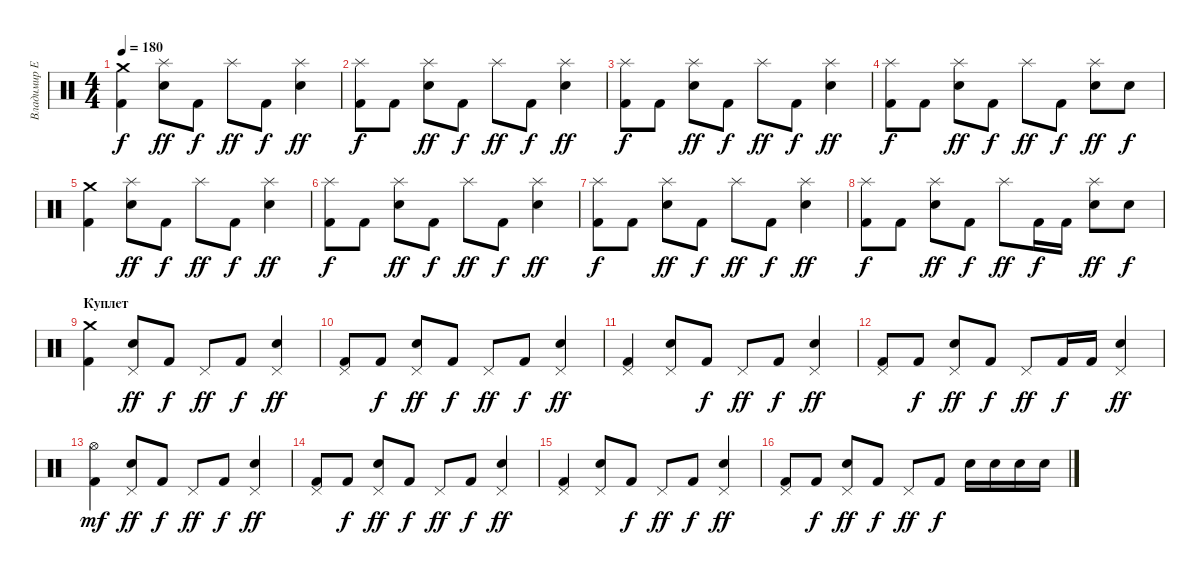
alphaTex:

\track ("Владимир Ермаков" "Владимир Е") {instrument percussion}
\staff {score}
\articulation defaults
\ts (4 4)
\tempo 180
\clef neutral
\ks c
("Crash medium (hit)" "Kick (hit) 2").4{dy f} ("Splash (hit)" "Electric Snare (hit)").8{dy ff} "Kick (hit) 2".8{dy f} "Splash (hit)".8{dy ff} "Kick (hit) 2".8{dy f} ("Splash (hit)" "Electric Snare (hit)").4{dy ff} |
("Splash (hit)" "Kick (hit) 2").8{dy f} "Kick (hit) 2".8 ("Splash (hit)" "Electric Snare (hit)").8{dy ff} "Kick (hit) 2".8{dy f} "Splash (hit)".8{dy ff} "Kick (hit) 2".8{dy f} ("Splash (hit)" "Electric Snare (hit)").4{dy ff} |
("Splash (hit)" "Kick (hit) 2").8{dy f} "Kick (hit) 2".8 ("Splash (hit)" "Electric Snare (hit)").8{dy ff} "Kick (hit) 2".8{dy f} "Splash (hit)".8{dy ff} "Kick (hit) 2".8{dy f} ("Splash (hit)" "Electric Snare (hit)").4{dy ff} |
("Splash (hit)" "Kick (hit) 2").8{dy f} "Kick (hit) 2".8 ("Splash (hit)" "Electric Snare (hit)").8{dy ff} "Kick (hit) 2".8{dy f} "Splash (hit)".8{dy ff} "Kick (hit) 2".8{dy f} ("Splash (hit)" "Electric Snare (hit)").8{dy ff} "Electric Snare (hit)".8{dy f} |
("Crash medium (hit)" "Kick (hit) 2").4 ("Splash (hit)" "Electric Snare (hit)").8{dy ff} "Kick (hit) 2".8{dy f} "Splash (hit)".8{dy ff} "Kick (hit) 2".8{dy f} ("Splash (hit)" "Electric Snare (hit)").4{dy ff} |
("Splash (hit)" "Kick (hit) 2").8{dy f} "Kick (hit) 2".8 ("Splash (hit)" "Electric Snare (hit)").8{dy ff} "Kick (hit) 2".8{dy f} "Splash (hit)".8{dy ff} "Kick (hit) 2".8{dy f} ("Splash (hit)" "Electric Snare (hit)").4{dy ff} |
("Splash (hit)" "Kick (hit) 2").8{dy f} "Kick (hit) 2".8 ("Splash (hit)" "Electric Snare (hit)").8{dy ff} "Kick (hit) 2".8{dy f} "Splash (hit)".8{dy ff} "Kick (hit) 2".8{dy f} ("Splash (hit)" "Electric Snare (hit)").4{dy ff} |
("Splash (hit)" "Kick (hit) 2").8{dy f} "Kick (hit) 2".8 ("Splash (hit)" "Electric Snare (hit)").8{dy ff} "Kick (hit) 2".8{dy f} "Splash (hit)".8{dy ff} "Kick (hit) 2".16{dy f} "Kick (hit) 2".16 ("Splash (hit)" "Electric Snare (hit)").8{dy ff} "Electric Snare (hit)".8{dy f} |
\section ("" "Куплет")
("Crash medium (hit)" "Kick (hit) 2").4 ("Pedal Hi-Hat (hit)" "Electric Snare (hit)").8{dy ff} "Kick (hit) 2".8{dy f} "Pedal Hi-Hat (hit)".8{dy ff} "Kick (hit) 2".8{dy f} ("Pedal Hi-Hat (hit)" "Electric Snare (hit)").4{dy ff} |
("Pedal Hi-Hat (hit)" "Kick (hit) 2").8 "Kick (hit) 2".8{dy f} ("Pedal Hi-Hat (hit)" "Electric Snare (hit)").8{dy ff} "Kick (hit) 2".8{dy f} "Pedal Hi-Hat (hit)".8{dy ff} "Kick (hit) 2".8{dy f} ("Pedal Hi-Hat (hit)" "Electric Snare (hit)").4{dy ff} |
("Pedal Hi-Hat (hit)" "Kick (hit) 2").4 ("Pedal Hi-Hat (hit)" "Electric Snare (hit)").8 "Kick (hit) 2".8{dy f} "Pedal Hi-Hat (hit)".8{dy ff} "Kick (hit) 2".8{dy f} ("Pedal Hi-Hat (hit)" "Electric Snare (hit)").4{dy ff} |
("Pedal Hi-Hat (hit)" "Kick (hit) 2").8 "Kick (hit) 2".8{dy f} ("Pedal Hi-Hat (hit)" "Electric Snare (hit)").8{dy ff} "Kick (hit) 2".8{dy f} "Pedal Hi-Hat (hit)".8{dy ff} "Kick (hit) 2".16{dy f} "Kick (hit) 2".16 ("Pedal Hi-Hat (hit)" "Electric Snare (hit)").4{dy ff} |
("Hi-Hat (open)" "Kick (hit) 2").4{dy mf} ("Pedal Hi-Hat (hit)" "Electric Snare (hit)").8{dy ff} "Kick (hit) 2".8{dy f} "Pedal Hi-Hat (hit)".8{dy ff} "Kick (hit) 2".8{dy f} ("Pedal Hi-Hat (hit)" "Electric Snare (hit)").4{dy ff} |
("Pedal Hi-Hat (hit)" "Kick (hit) 2").8 "Kick (hit) 2".8{dy f} ("Pedal Hi-Hat (hit)" "Electric Snare (hit)").8{dy ff} "Kick (hit) 2".8{dy f} "Pedal Hi-Hat (hit)".8{dy ff} "Kick (hit) 2".8{dy f} ("Pedal Hi-Hat (hit)" "Electric Snare (hit)").4{dy ff} |
("Pedal Hi-Hat (hit)" "Kick (hit) 2").4 ("Pedal Hi-Hat (hit)" "Electric Snare (hit)").8 "Kick (hit) 2".8{dy f} "Pedal Hi-Hat (hit)".8{dy ff} "Kick (hit) 2".8{dy f} ("Pedal Hi-Hat (hit)" "Electric Snare (hit)").4{dy ff} |
("Pedal Hi-Hat (hit)" "Kick (hit) 2").8 "Kick (hit) 2".8{dy f} ("Pedal Hi-Hat (hit)" "Electric Snare (hit)").8{dy ff} "Kick (hit) 2".8{dy f} "Pedal Hi-Hat (hit)".8{dy ff} "Kick (hit) 2".8{dy f} "Electric Snare (hit)".16 "Electric Snare (hit)".16 "Electric Snare (hit)".16 "Electric Snare (hit)".16
